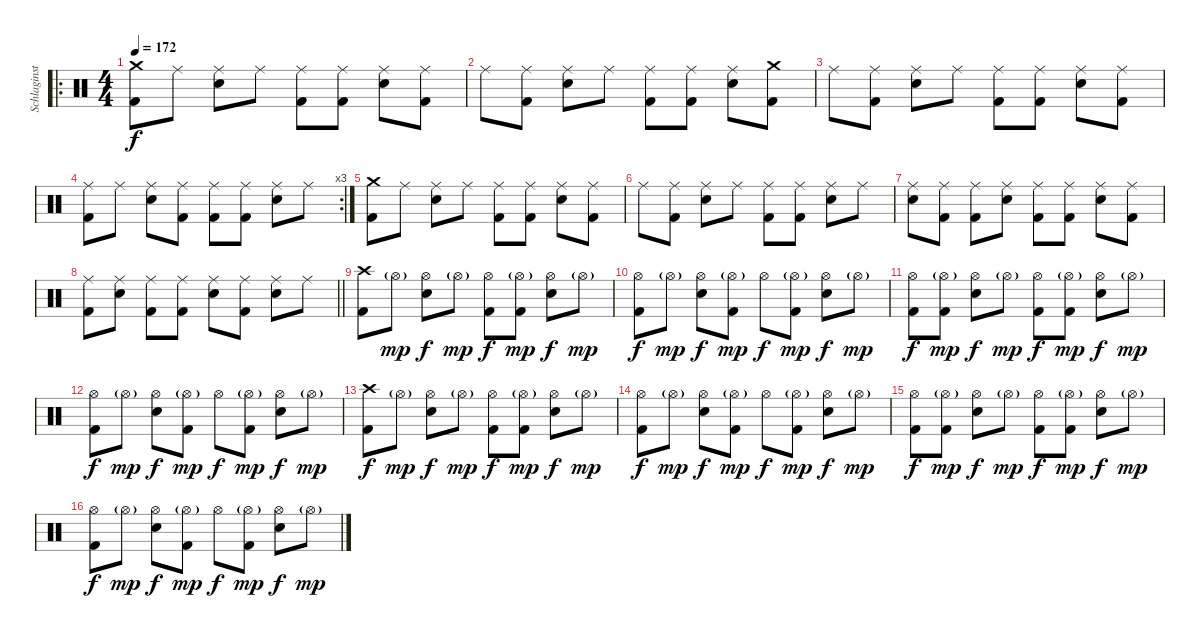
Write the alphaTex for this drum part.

\track ("Schlaginstrumente - Auswahl" "Schlaginst") {instrument percussion}
\staff {score}
\articulation defaults
\ro
\ts (4 4)
\tempo 172
\clef neutral
\ks c
("Crash medium (hit)" "Kick (hit) 2").8{dy f} "Ride (middle)".8 ("Ride (middle)" "Snare (hit) 2").8 "Ride (middle)".8 ("Ride (middle)" "Kick (hit) 2").8 ("Ride (middle)" "Kick (hit) 2").8 ("Ride (middle)" "Snare (hit) 2").8 ("Ride (middle)" "Kick (hit) 2").8 |
"Ride (middle)".8 ("Ride (middle)" "Kick (hit) 2").8 ("Ride (middle)" "Snare (hit) 2").8 "Ride (middle)".8 ("Ride (middle)" "Kick (hit) 2").8 ("Ride (middle)" "Kick (hit) 2").8 ("Ride (middle)" "Snare (hit) 2").8 ("Crash medium (hit)" "Kick (hit) 2").8 |
"Ride (middle)".8 ("Ride (middle)" "Kick (hit) 2").8 ("Ride (middle)" "Snare (hit) 2").8 "Ride (middle)".8 ("Ride (middle)" "Kick (hit) 2").8 ("Ride (middle)" "Kick (hit) 2").8 ("Ride (middle)" "Snare (hit) 2").8 ("Ride (middle)" "Kick (hit) 2").8 |
\rc 3
("Ride (middle)" "Kick (hit) 2").8 "Ride (middle)".8 ("Ride (middle)" "Snare (hit) 2").8 ("Ride (middle)" "Kick (hit) 2").8 ("Ride (middle)" "Kick (hit) 2").8 ("Ride (middle)" "Kick (hit) 2").8 ("Ride (middle)" "Snare (hit) 2").8 "Ride (middle)".8 |
("Crash medium (hit)" "Kick (hit) 2").8 "Ride (middle)".8 ("Ride (middle)" "Snare (hit) 2").8 "Ride (middle)".8 ("Ride (middle)" "Kick (hit) 2").8 ("Ride (middle)" "Kick (hit) 2").8 ("Ride (middle)" "Snare (hit) 2").8 ("Ride (middle)" "Kick (hit) 2").8 |
"Ride (middle)".8 ("Ride (middle)" "Kick (hit) 2").8 ("Ride (middle)" "Snare (hit) 2").8 "Ride (middle)".8 ("Ride (middle)" "Kick (hit) 2").8 ("Ride (middle)" "Kick (hit) 2").8 ("Ride (middle)" "Snare (hit) 2").8 "Ride (middle)".8 |
("Ride (middle)" "Snare (hit) 2").8 ("Ride (middle)" "Kick (hit) 2").8 ("Ride (middle)" "Kick (hit) 2").8 ("Ride (middle)" "Snare (hit) 2").8 ("Ride (middle)" "Kick (hit) 2").8 ("Ride (middle)" "Kick (hit) 2").8 ("Ride (middle)" "Snare (hit) 2").8 ("Ride (middle)" "Kick (hit) 2").8 |
\barLineRight lightlight
("Ride (middle)" "Kick (hit) 2").8 ("Ride (middle)" "Snare (hit) 2").8 ("Ride (middle)" "Kick (hit) 2").8 ("Ride (middle)" "Kick (hit) 2").8 ("Ride (middle)" "Snare (hit) 2").8 ("Ride (middle)" "Kick (hit) 2").8 ("Ride (middle)" "Snare (hit) 2").8 "Ride (middle)".8 |
("Crash high (hit)" "Kick (hit) 2").8 "Hi-Hat (open)"{g}.8{dy mp} ("Hi-Hat (open)" "Snare (hit) 2").8{dy f} "Hi-Hat (open)"{g}.8{dy mp} ("Hi-Hat (open)" "Kick (hit) 2").8{dy f} ("Hi-Hat (open)"{g} "Kick (hit) 2").8{dy mp} ("Hi-Hat (open)" "Snare (hit) 2").8{dy f} "Hi-Hat (open)"{g}.8{dy mp} |
("Hi-Hat (open)" "Kick (hit) 2").8{dy f} "Hi-Hat (open)"{g}.8{dy mp} ("Hi-Hat (open)" "Snare (hit) 2").8{dy f} ("Hi-Hat (open)"{g} "Kick (hit) 2").8{dy mp} "Hi-Hat (open)".8{dy f} ("Hi-Hat (open)"{g} "Kick (hit) 2").8{dy mp} ("Hi-Hat (open)" "Snare (hit) 2").8{dy f} "Hi-Hat (open)"{g}.8{dy mp} |
("Hi-Hat (open)" "Kick (hit) 2").8{dy f} ("Hi-Hat (open)"{g} "Kick (hit) 2").8{dy mp} ("Hi-Hat (open)" "Snare (hit) 2").8{dy f} "Hi-Hat (open)"{g}.8{dy mp} ("Hi-Hat (open)" "Kick (hit) 2").8{dy f} ("Hi-Hat (open)"{g} "Kick (hit) 2").8{dy mp} ("Hi-Hat (open)" "Snare (hit) 2").8{dy f} "Hi-Hat (open)"{g}.8{dy mp} |
("Hi-Hat (open)" "Kick (hit) 2").8{dy f} "Hi-Hat (open)"{g}.8{dy mp} ("Hi-Hat (open)" "Snare (hit) 2").8{dy f} ("Hi-Hat (open)"{g} "Kick (hit) 2").8{dy mp} "Hi-Hat (open)".8{dy f} ("Hi-Hat (open)"{g} "Kick (hit) 2").8{dy mp} ("Hi-Hat (open)" "Snare (hit) 2").8{dy f} "Hi-Hat (open)"{g}.8{dy mp} |
("Crash high (hit)" "Kick (hit) 2").8{dy f} "Hi-Hat (open)"{g}.8{dy mp} ("Hi-Hat (open)" "Snare (hit) 2").8{dy f} "Hi-Hat (open)"{g}.8{dy mp} ("Hi-Hat (open)" "Kick (hit) 2").8{dy f} ("Hi-Hat (open)"{g} "Kick (hit) 2").8{dy mp} ("Hi-Hat (open)" "Snare (hit) 2").8{dy f} "Hi-Hat (open)"{g}.8{dy mp} |
("Hi-Hat (open)" "Kick (hit) 2").8{dy f} "Hi-Hat (open)"{g}.8{dy mp} ("Hi-Hat (open)" "Snare (hit) 2").8{dy f} ("Hi-Hat (open)"{g} "Kick (hit) 2").8{dy mp} "Hi-Hat (open)".8{dy f} ("Hi-Hat (open)"{g} "Kick (hit) 2").8{dy mp} ("Hi-Hat (open)" "Snare (hit) 2").8{dy f} "Hi-Hat (open)"{g}.8{dy mp} |
("Hi-Hat (open)" "Kick (hit) 2").8{dy f} ("Hi-Hat (open)"{g} "Kick (hit) 2").8{dy mp} ("Hi-Hat (open)" "Snare (hit) 2").8{dy f} "Hi-Hat (open)"{g}.8{dy mp} ("Hi-Hat (open)" "Kick (hit) 2").8{dy f} ("Hi-Hat (open)"{g} "Kick (hit) 2").8{dy mp} ("Hi-Hat (open)" "Snare (hit) 2").8{dy f} "Hi-Hat (open)"{g}.8{dy mp} |
("Hi-Hat (open)" "Kick (hit) 2").8{dy f} "Hi-Hat (open)"{g}.8{dy mp} ("Hi-Hat (open)" "Snare (hit) 2").8{dy f} ("Hi-Hat (open)"{g} "Kick (hit) 2").8{dy mp} "Hi-Hat (open)".8{dy f} ("Hi-Hat (open)"{g} "Kick (hit) 2").8{dy mp} ("Hi-Hat (open)" "Snare (hit) 2").8{dy f} "Hi-Hat (open)"{g}.8{dy mp}
